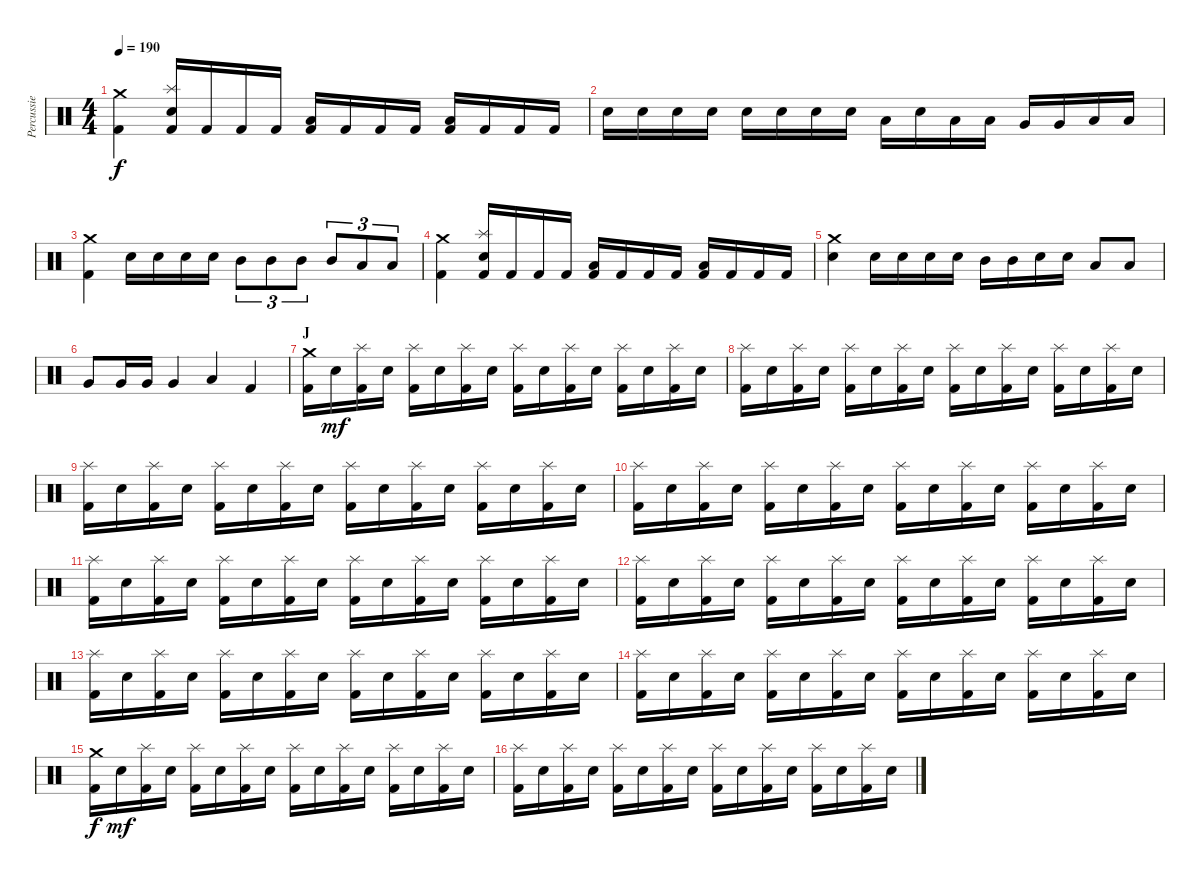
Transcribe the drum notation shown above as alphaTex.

\track ("Percussie" "Percussie") {instrument percussion}
\staff {score}
\articulation defaults
\ts (4 4)
\tempo 190
\clef neutral
\ks c
("Crash medium (hit)" "Kick (hit) 2").4{dy f} ("Splash (hit)" "Electric Snare (hit)" "Kick (hit) 2").16 "Kick (hit) 2".16 "Kick (hit) 2".16 "Kick (hit) 2".16 ("Low Tom (hit)" "Kick (hit) 2").16 "Kick (hit) 2".16 "Kick (hit) 2".16 "Kick (hit) 2".16 ("Low Tom (hit)" "Kick (hit) 2").16 "Kick (hit) 2".16 "Kick (hit) 2".16 "Kick (hit) 2".16 |
"Electric Snare (hit)".16 "Electric Snare (hit)".16 "Electric Snare (hit)".16 "Electric Snare (hit)".16 "Electric Snare (hit)".16 "Electric Snare (hit)".16 "Electric Snare (hit)".16 "Electric Snare (hit)".16 "Low Tom (hit)".16 "Electric Snare (hit)".16 "Low Tom (hit)".16 "Low Tom (hit)".16 "Very Low Tom (hit)".16 "Very Low Tom (hit)".16 "Low Floor Tom (hit)".16 "Low Floor Tom (hit)".16 |
("Crash medium (hit)" "Kick (hit) 2").4 "Electric Snare (hit)".16 "Electric Snare (hit)".16 "Electric Snare (hit)".16 "Electric Snare (hit)".16 "Mid Tom (hit)".8{tu (3 2)} "Mid Tom (hit)".8{tu (3 2)} "Mid Tom (hit)".8{tu (3 2)} "Mid Tom (hit)".8{tu (3 2)} "Low Tom (hit)".8{tu (3 2)} "Low Tom (hit)".8{tu (3 2)} |
("Crash medium (hit)" "Kick (hit) 2").4 ("Splash (hit)" "Electric Snare (hit)" "Kick (hit) 2").16 "Kick (hit) 2".16 "Kick (hit) 2".16 "Kick (hit) 2".16 ("Low Tom (hit)" "Kick (hit) 2").16 "Kick (hit) 2".16 "Kick (hit) 2".16 "Kick (hit) 2".16 ("Low Tom (hit)" "Kick (hit) 2").16 "Kick (hit) 2".16 "Kick (hit) 2".16 "Kick (hit) 2".16 |
("Crash medium (hit)" "Electric Snare (hit)").4 "Electric Snare (hit)".16 "Electric Snare (hit)".16 "Electric Snare (hit)".16 "Electric Snare (hit)".16 "Mid Tom (hit)".16 "Mid Tom (hit)".16 "Electric Snare (hit)".16 "Electric Snare (hit)".16 "Low Tom (hit)".8 "Low Tom (hit)".8 |
"Very Low Tom (hit)".8 "Very Low Tom (hit)".16 "Very Low Tom (hit)".16 "Very Low Tom (hit)".4 "Low Floor Tom (hit)".4 "Kick (hit) 2".4 |
\section ("" "J")
("Crash medium (hit)" "Kick (hit) 2").16 "Electric Snare (hit)".16{dy mf} ("Splash (hit)" "Kick (hit) 2").16 "Electric Snare (hit)".16 ("Splash (hit)" "Kick (hit) 2").16 "Electric Snare (hit)".16 ("Splash (hit)" "Kick (hit) 2").16 "Electric Snare (hit)".16 ("Splash (hit)" "Kick (hit) 2").16 "Electric Snare (hit)".16 ("Splash (hit)" "Kick (hit) 2").16 "Electric Snare (hit)".16 ("Splash (hit)" "Kick (hit) 2").16 "Electric Snare (hit)".16 ("Splash (hit)" "Kick (hit) 2").16 "Electric Snare (hit)".16 |
("Splash (hit)" "Kick (hit) 2").16 "Electric Snare (hit)".16 ("Splash (hit)" "Kick (hit) 2").16 "Electric Snare (hit)".16 ("Splash (hit)" "Kick (hit) 2").16 "Electric Snare (hit)".16 ("Splash (hit)" "Kick (hit) 2").16 "Electric Snare (hit)".16 ("Splash (hit)" "Kick (hit) 2").16 "Electric Snare (hit)".16 ("Splash (hit)" "Kick (hit) 2").16 "Electric Snare (hit)".16 ("Splash (hit)" "Kick (hit) 2").16 "Electric Snare (hit)".16 ("Splash (hit)" "Kick (hit) 2").16 "Electric Snare (hit)".16 |
("Splash (hit)" "Kick (hit) 2").16 "Electric Snare (hit)".16 ("Splash (hit)" "Kick (hit) 2").16 "Electric Snare (hit)".16 ("Splash (hit)" "Kick (hit) 2").16 "Electric Snare (hit)".16 ("Splash (hit)" "Kick (hit) 2").16 "Electric Snare (hit)".16 ("Splash (hit)" "Kick (hit) 2").16 "Electric Snare (hit)".16 ("Splash (hit)" "Kick (hit) 2").16 "Electric Snare (hit)".16 ("Splash (hit)" "Kick (hit) 2").16 "Electric Snare (hit)".16 ("Splash (hit)" "Kick (hit) 2").16 "Electric Snare (hit)".16 |
("Splash (hit)" "Kick (hit) 2").16 "Electric Snare (hit)".16 ("Splash (hit)" "Kick (hit) 2").16 "Electric Snare (hit)".16 ("Splash (hit)" "Kick (hit) 2").16 "Electric Snare (hit)".16 ("Splash (hit)" "Kick (hit) 2").16 "Electric Snare (hit)".16 ("Splash (hit)" "Kick (hit) 2").16 "Electric Snare (hit)".16 ("Splash (hit)" "Kick (hit) 2").16 "Electric Snare (hit)".16 ("Splash (hit)" "Kick (hit) 2").16 "Electric Snare (hit)".16 ("Splash (hit)" "Kick (hit) 2").16 "Electric Snare (hit)".16 |
("Splash (hit)" "Kick (hit) 2").16 "Electric Snare (hit)".16 ("Splash (hit)" "Kick (hit) 2").16 "Electric Snare (hit)".16 ("Splash (hit)" "Kick (hit) 2").16 "Electric Snare (hit)".16 ("Splash (hit)" "Kick (hit) 2").16 "Electric Snare (hit)".16 ("Splash (hit)" "Kick (hit) 2").16 "Electric Snare (hit)".16 ("Splash (hit)" "Kick (hit) 2").16 "Electric Snare (hit)".16 ("Splash (hit)" "Kick (hit) 2").16 "Electric Snare (hit)".16 ("Splash (hit)" "Kick (hit) 2").16 "Electric Snare (hit)".16 |
("Splash (hit)" "Kick (hit) 2").16 "Electric Snare (hit)".16 ("Splash (hit)" "Kick (hit) 2").16 "Electric Snare (hit)".16 ("Splash (hit)" "Kick (hit) 2").16 "Electric Snare (hit)".16 ("Splash (hit)" "Kick (hit) 2").16 "Electric Snare (hit)".16 ("Splash (hit)" "Kick (hit) 2").16 "Electric Snare (hit)".16 ("Splash (hit)" "Kick (hit) 2").16 "Electric Snare (hit)".16 ("Splash (hit)" "Kick (hit) 2").16 "Electric Snare (hit)".16 ("Splash (hit)" "Kick (hit) 2").16 "Electric Snare (hit)".16 |
("Splash (hit)" "Kick (hit) 2").16 "Electric Snare (hit)".16 ("Splash (hit)" "Kick (hit) 2").16 "Electric Snare (hit)".16 ("Splash (hit)" "Kick (hit) 2").16 "Electric Snare (hit)".16 ("Splash (hit)" "Kick (hit) 2").16 "Electric Snare (hit)".16 ("Splash (hit)" "Kick (hit) 2").16 "Electric Snare (hit)".16 ("Splash (hit)" "Kick (hit) 2").16 "Electric Snare (hit)".16 ("Splash (hit)" "Kick (hit) 2").16 "Electric Snare (hit)".16 ("Splash (hit)" "Kick (hit) 2").16 "Electric Snare (hit)".16 |
("Splash (hit)" "Kick (hit) 2").16 "Electric Snare (hit)".16 ("Splash (hit)" "Kick (hit) 2").16 "Electric Snare (hit)".16 ("Splash (hit)" "Kick (hit) 2").16 "Electric Snare (hit)".16 ("Splash (hit)" "Kick (hit) 2").16 "Electric Snare (hit)".16 ("Splash (hit)" "Kick (hit) 2").16 "Electric Snare (hit)".16 ("Splash (hit)" "Kick (hit) 2").16 "Electric Snare (hit)".16 ("Splash (hit)" "Kick (hit) 2").16 "Electric Snare (hit)".16 ("Splash (hit)" "Kick (hit) 2").16 "Electric Snare (hit)".16 |
("Crash medium (hit)" "Kick (hit) 2").16{dy f} "Electric Snare (hit)".16{dy mf} ("Splash (hit)" "Kick (hit) 2").16 "Electric Snare (hit)".16 ("Splash (hit)" "Kick (hit) 2").16 "Electric Snare (hit)".16 ("Splash (hit)" "Kick (hit) 2").16 "Electric Snare (hit)".16 ("Splash (hit)" "Kick (hit) 2").16 "Electric Snare (hit)".16 ("Splash (hit)" "Kick (hit) 2").16 "Electric Snare (hit)".16 ("Splash (hit)" "Kick (hit) 2").16 "Electric Snare (hit)".16 ("Splash (hit)" "Kick (hit) 2").16 "Electric Snare (hit)".16 |
("Splash (hit)" "Kick (hit) 2").16 "Electric Snare (hit)".16 ("Splash (hit)" "Kick (hit) 2").16 "Electric Snare (hit)".16 ("Splash (hit)" "Kick (hit) 2").16 "Electric Snare (hit)".16 ("Splash (hit)" "Kick (hit) 2").16 "Electric Snare (hit)".16 ("Splash (hit)" "Kick (hit) 2").16 "Electric Snare (hit)".16 ("Splash (hit)" "Kick (hit) 2").16 "Electric Snare (hit)".16 ("Splash (hit)" "Kick (hit) 2").16 "Electric Snare (hit)".16 ("Splash (hit)" "Kick (hit) 2").16 "Electric Snare (hit)".16
